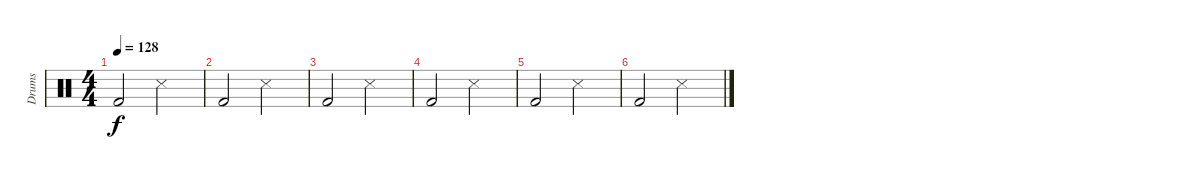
\track ("Drums" "Drums") {instrument percussion}
\staff {score}
\articulation defaults
\ts (4 4)
\tempo 128
\clef neutral
\ks c "Kick (hit) 2".2{dy f} "Snare (side stick) 3".2
|
"Kick (hit) 2".2 "Snare (side stick) 3".2 |
"Kick (hit) 2".2 "Snare (side stick) 3".2 |
"Kick (hit) 2".2 "Snare (side stick) 3".2 |
"Kick (hit) 2".2 "Snare (side stick) 3".2 |
"Kick (hit) 2".2 "Snare (side stick) 3".2
